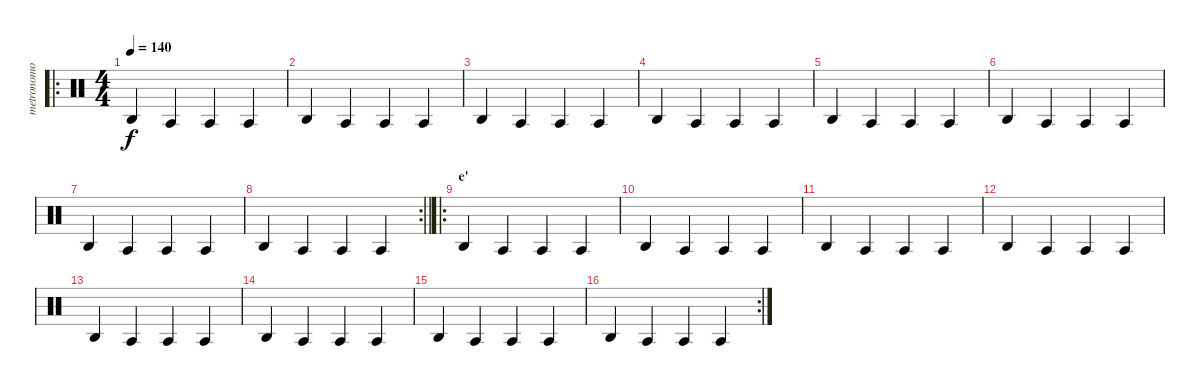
\track ("metronomo" "metronomo") {mute instrument percussion}
\staff {score}
\articulation defaults
\ro
\ts (4 4)
\tempo 140
\clef neutral
\ks c "Agogo high (hit)".4{dy f} "Agogo tow (hit)".4 "Agogo tow (hit)".4 "Agogo tow (hit)".4
|
"Agogo high (hit)".4 "Agogo tow (hit)".4 "Agogo tow (hit)".4 "Agogo tow (hit)".4 |
"Agogo high (hit)".4 "Agogo tow (hit)".4 "Agogo tow (hit)".4 "Agogo tow (hit)".4 |
"Agogo high (hit)".4 "Agogo tow (hit)".4 "Agogo tow (hit)".4 "Agogo tow (hit)".4 |
"Agogo high (hit)".4 "Agogo tow (hit)".4 "Agogo tow (hit)".4 "Agogo tow (hit)".4 |
"Agogo high (hit)".4 "Agogo tow (hit)".4 "Agogo tow (hit)".4 "Agogo tow (hit)".4 |
"Agogo high (hit)".4 "Agogo tow (hit)".4 "Agogo tow (hit)".4 "Agogo tow (hit)".4 |
\rc 2
\barLineRight lightlight "Agogo high (hit)".4 "Agogo tow (hit)".4 "Agogo tow (hit)".4 "Agogo tow (hit)".4
|
\ro
\section ("" "e'")
"Agogo high (hit)".4 "Agogo tow (hit)".4 "Agogo tow (hit)".4 "Agogo tow (hit)".4 |
"Agogo high (hit)".4 "Agogo tow (hit)".4 "Agogo tow (hit)".4 "Agogo tow (hit)".4 |
"Agogo high (hit)".4 "Agogo tow (hit)".4 "Agogo tow (hit)".4 "Agogo tow (hit)".4 |
"Agogo high (hit)".4 "Agogo tow (hit)".4 "Agogo tow (hit)".4 "Agogo tow (hit)".4 |
"Agogo high (hit)".4 "Agogo tow (hit)".4 "Agogo tow (hit)".4 "Agogo tow (hit)".4 |
"Agogo high (hit)".4 "Agogo tow (hit)".4 "Agogo tow (hit)".4 "Agogo tow (hit)".4 |
"Agogo high (hit)".4 "Agogo tow (hit)".4 "Agogo tow (hit)".4 "Agogo tow (hit)".4 |
\rc 2 "Agogo high (hit)".4 "Agogo tow (hit)".4 "Agogo tow (hit)".4 "Agogo tow (hit)".4
